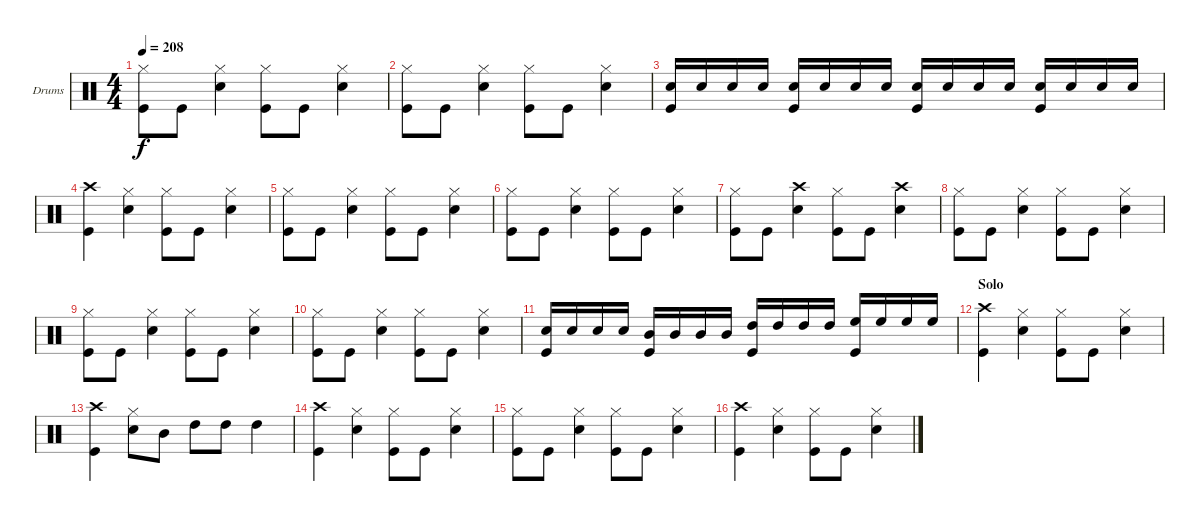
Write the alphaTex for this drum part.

\defaultSystemsLayout 4
\bracketExtendMode groupsimilarinstruments
\firstSystemTrackNameOrientation horizontal
\otherSystemsTrackNameOrientation horizontal
\track ("Drums" "Drums") {instrument percussion}
\staff {score}
\articulation defaults
\ts (4 4)
\tempo 208
\clef neutral
\ks c
("Kick (hit)" "Hi-Hat (closed)").8{dy f} "Kick (hit)".8 ("Snare (hit) 2" "Hi-Hat (closed)").4 ("Kick (hit)" "Hi-Hat (closed)").8 "Kick (hit)".8 ("Snare (hit) 2" "Hi-Hat (closed)").4 |
("Kick (hit)" "Hi-Hat (closed)").8 "Kick (hit)".8 ("Snare (hit) 2" "Hi-Hat (closed)").4 ("Kick (hit)" "Hi-Hat (closed)").8 "Kick (hit)".8 ("Snare (hit) 2" "Hi-Hat (closed)").4 |
("Snare (hit) 2" "Kick (hit)").16 "Snare (hit) 2".16 "Snare (hit) 2".16 "Snare (hit) 2".16 ("Snare (hit) 2" "Kick (hit)").16 "Snare (hit) 2".16 "Snare (hit) 2".16 "Snare (hit) 2".16 ("Snare (hit) 2" "Kick (hit)").16 "Snare (hit) 2".16 "Snare (hit) 2".16 "Snare (hit) 2".16 ("Snare (hit) 2" "Kick (hit)").16 "Snare (hit) 2".16 "Snare (hit) 2".16 "Snare (hit) 2".16 |
("Kick (hit)" "Crash high (hit)").4 ("Hi-Hat (closed)" "Snare (hit) 2").4 ("Kick (hit)" "Hi-Hat (closed)").8 "Kick (hit)".8 ("Snare (hit) 2" "Hi-Hat (closed)").4 |
("Kick (hit)" "Hi-Hat (closed)").8 "Kick (hit)".8 ("Snare (hit) 2" "Hi-Hat (closed)").4 ("Kick (hit)" "Hi-Hat (closed)").8 "Kick (hit)".8 ("Snare (hit) 2" "Hi-Hat (closed)").4 |
("Kick (hit)" "Hi-Hat (closed)").8 "Kick (hit)".8 ("Snare (hit) 2" "Hi-Hat (closed)").4 ("Kick (hit)" "Hi-Hat (closed)").8 "Kick (hit)".8 ("Snare (hit) 2" "Hi-Hat (closed)").4 |
("Kick (hit)" "Hi-Hat (closed)").8 "Kick (hit)".8 ("Crash high (hit)" "Snare (hit) 2").4 ("Kick (hit)" "Hi-Hat (closed)").8 "Kick (hit)".8 ("Crash high (hit)" "Snare (hit) 2").4 |
("Kick (hit)" "Hi-Hat (closed)").8 "Kick (hit)".8 ("Snare (hit) 2" "Hi-Hat (closed)").4 ("Kick (hit)" "Hi-Hat (closed)").8 "Kick (hit)".8 ("Snare (hit) 2" "Hi-Hat (closed)").4 |
("Kick (hit)" "Hi-Hat (closed)").8 "Kick (hit)".8 ("Snare (hit) 2" "Hi-Hat (closed)").4 ("Kick (hit)" "Hi-Hat (closed)").8 "Kick (hit)".8 ("Snare (hit) 2" "Hi-Hat (closed)").4 |
("Kick (hit)" "Hi-Hat (closed)").8 "Kick (hit)".8 ("Snare (hit) 2" "Hi-Hat (closed)").4 ("Kick (hit)" "Hi-Hat (closed)").8 "Kick (hit)".8 ("Snare (hit) 2" "Hi-Hat (closed)").4 |
("Snare (hit) 2" "Kick (hit)").16 "Snare (hit) 2".16 "Snare (hit) 2".16 "Snare (hit) 2".16 ("Mid Tom (hit)" "Kick (hit)").16 "Mid Tom (hit)".16 "Mid Tom (hit)".16 "Mid Tom (hit)".16 ("High Tom (hit)" "Kick (hit)").16 "High Tom (hit)".16 "High Tom (hit)".16 "High Tom (hit)".16 ("High Floor Tom (hit)" "Kick (hit)").16 "High Floor Tom (hit)".16 "High Floor Tom (hit)".16 "High Floor Tom (hit)".16 |
\section ("" "Solo")
("Kick (hit)" "Crash high (hit)").4 ("Snare (hit) 2" "Hi-Hat (closed)").4 ("Kick (hit)" "Hi-Hat (closed)").8 "Kick (hit)".8 ("Snare (hit) 2" "Hi-Hat (closed)").4 |
("Kick (hit)" "Crash high (hit)").4 ("Snare (hit) 2" "Hi-Hat (closed)").8 "Mid Tom (hit)".8 "High Tom (hit)".8 "High Tom (hit)".8 "High Tom (hit)".4 |
("Kick (hit)" "Crash high (hit)").4 ("Snare (hit) 2" "Hi-Hat (closed)").4 ("Kick (hit)" "Hi-Hat (closed)").8 "Kick (hit)".8 ("Snare (hit) 2" "Hi-Hat (closed)").4 |
("Hi-Hat (closed)" "Kick (hit)").8 "Kick (hit)".8 ("Snare (hit) 2" "Hi-Hat (closed)").4 ("Hi-Hat (closed)" "Kick (hit)").8 "Kick (hit)".8 ("Snare (hit) 2" "Hi-Hat (closed)").4 |
("Kick (hit)" "Crash high (hit)").4 ("Snare (hit) 2" "Hi-Hat (closed)").4 ("Kick (hit)" "Hi-Hat (closed)").8 "Kick (hit)".8 ("Snare (hit) 2" "Hi-Hat (closed)").4
